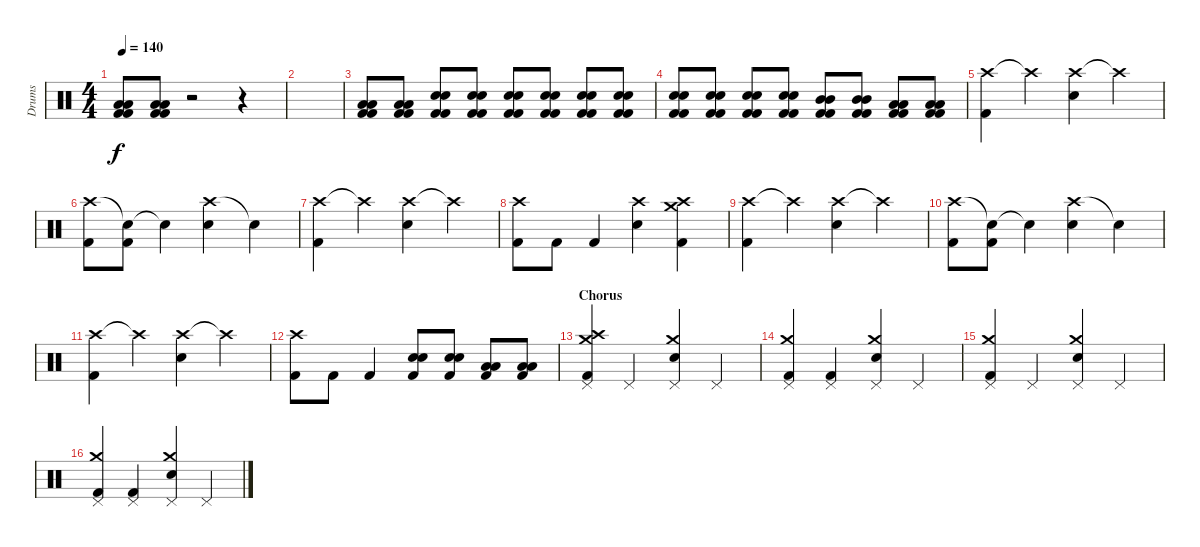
\track ("Drums" "Drums") {instrument percussion}
\staff {score}
\articulation defaults
\ts (4 4)
\tempo 140
\clef neutral
\ks c
("Low Floor Tom (hit)" "Low Floor Tom (hit)" "Kick (hit) 2" "Kick (hit) 2").8{dy f} ("Low Floor Tom (hit)" "Low Floor Tom (hit)" "Kick (hit) 2" "Kick (hit) 2").8 r.2 r.4 |
|
("Low Floor Tom (hit)" "Low Floor Tom (hit)" "Kick (hit) 2" "Kick (hit) 2").8 ("Low Floor Tom (hit)" "Low Floor Tom (hit)" "Kick (hit) 2" "Kick (hit) 2").8 ("Snare (hit) 2" "Snare (hit) 2" "Kick (hit) 2" "Kick (hit) 2").8{volume 0} ("Snare (hit) 2" "Snare (hit) 2" "Kick (hit) 2" "Kick (hit) 2").8{volume 16} ("Snare (hit) 2" "Snare (hit) 2" "Kick (hit) 2" "Kick (hit) 2").8 ("Snare (hit) 2" "Snare (hit) 2" "Kick (hit) 2" "Kick (hit) 2").8 ("Snare (hit) 2" "Snare (hit) 2" "Kick (hit) 2" "Kick (hit) 2").8 ("Snare (hit) 2" "Snare (hit) 2" "Kick (hit) 2" "Kick (hit) 2").8 |
("Snare (hit) 2" "Snare (hit) 2" "Kick (hit) 2" "Kick (hit) 2").8 ("Snare (hit) 2" "Snare (hit) 2" "Kick (hit) 2" "Kick (hit) 2").8 ("Snare (hit) 2" "Snare (hit) 2" "Kick (hit) 2" "Kick (hit) 2").8 ("Snare (hit) 2" "Snare (hit) 2" "Kick (hit) 2" "Kick (hit) 2").8 ("Mid Tom (hit)" "Mid Tom (hit)" "Kick (hit) 2" "Kick (hit) 2").8 ("Mid Tom (hit)" "Mid Tom (hit)" "Kick (hit) 2" "Kick (hit) 2").8 ("Low Tom (hit)" "Low Tom (hit)" "Kick (hit) 2" "Kick (hit) 2").8 ("Low Floor Tom (hit)" "Low Floor Tom (hit)" "Kick (hit) 2" "Kick (hit) 2").8 |
("Crash high (hit)" "Kick (hit) 2").4 "Crash high (hit)"{t}.4 ("Crash high (hit)" "Electric Snare (hit)").4 "Crash high (hit)"{t}.4 |
("Crash high (hit)" "Kick (hit) 2").8 ("Snare (hit)"{t} "Kick (hit) 2").8 "Snare (hit)"{t}.4 ("Crash high (hit)" "Electric Snare (hit)").4 "Snare (hit)"{t}.4 |
("Crash high (hit)" "Kick (hit) 2").4 "Crash high (hit)"{t}.4 ("Crash high (hit)" "Electric Snare (hit)").4 "Crash high (hit)"{t}.4 |
("Crash high (hit)" "Kick (hit) 2").8 "Kick (hit) 2".8 "Kick (hit) 2".4 ("Crash high (hit)" "Electric Snare (hit)").4 ("Crash medium (hit)" "Crash high (hit)" "Kick (hit) 2").4 |
("Crash high (hit)" "Kick (hit) 2").4 "Crash high (hit)"{t}.4 ("Crash high (hit)" "Electric Snare (hit)").4 "Crash high (hit)"{t}.4 |
("Crash high (hit)" "Kick (hit) 2").8 ("Snare (hit)"{t} "Kick (hit) 2").8 "Snare (hit)"{t}.4 ("Crash high (hit)" "Electric Snare (hit)").4 "Snare (hit)"{t}.4 |
("Crash high (hit)" "Kick (hit) 2").4 "Crash high (hit)"{t}.4 ("Crash high (hit)" "Electric Snare (hit)").4 "Crash high (hit)"{t}.4 |
("Crash high (hit)" "Kick (hit) 2").8 "Kick (hit) 2".8 "Kick (hit) 2".4 ("Snare (hit) 2" "Snare (hit) 2" "Kick (hit) 2").8 ("Snare (hit) 2" "Snare (hit) 2" "Kick (hit) 2").8 ("Low Tom (hit)" "Low Tom (hit)" "Kick (hit) 2").8 ("Low Tom (hit)" "Low Tom (hit)" "Kick (hit) 2").8 |
\section ("" "Chorus")
("Crash high (hit)" "Pedal Hi-Hat (hit)" "Crash medium (hit)" "Kick (hit) 2").4 "Pedal Hi-Hat (hit)".4 ("Crash medium (hit)" "Pedal Hi-Hat (hit)" "Electric Snare (hit)").4 "Pedal Hi-Hat (hit)".4 |
("Crash medium (hit)" "Pedal Hi-Hat (hit)" "Kick (hit) 2").4 ("Pedal Hi-Hat (hit)" "Kick (hit) 2").4 ("Crash medium (hit)" "Pedal Hi-Hat (hit)" "Electric Snare (hit)").4 "Pedal Hi-Hat (hit)".4 |
("Crash medium (hit)" "Pedal Hi-Hat (hit)" "Kick (hit) 2").4 "Pedal Hi-Hat (hit)".4 ("Crash medium (hit)" "Pedal Hi-Hat (hit)" "Electric Snare (hit)").4 "Pedal Hi-Hat (hit)".4 |
("Crash medium (hit)" "Pedal Hi-Hat (hit)" "Kick (hit) 2").4 ("Pedal Hi-Hat (hit)" "Kick (hit) 2").4 ("Crash medium (hit)" "Pedal Hi-Hat (hit)" "Electric Snare (hit)").4 "Pedal Hi-Hat (hit)".4
